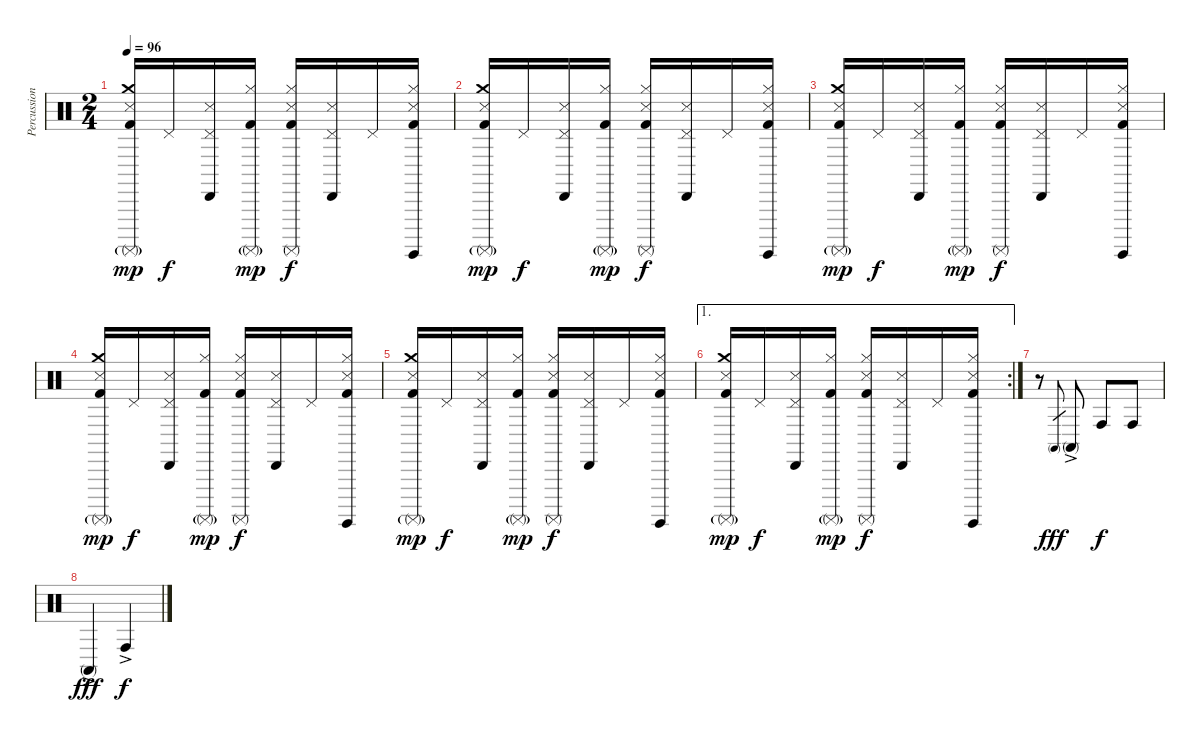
\track ("Percussion" "Percussion") {instrument percussion}
\staff {score}
\articulation defaults
\ts (2 4)
\tempo 96
\clef neutral
\ks c
("Crash medium (hit)" "Snare (side stick) 3" "Surdo (mute)"{g} "Kick (hit) 2").16{dy mp volume 12} "Pedal Hi-Hat (hit)".16{dy f} ("Pedal Hi-Hat (hit)" "Cabasa (hit)" "Snare (side stick) 3").16 ("Hi-Hat (closed)" "Surdo (mute)"{g} "Kick (hit) 2").16{dy mp} ("Hi-Hat (closed)" "Snare (side stick) 3" "Surdo (mute)" "Kick (hit) 2").16{dy f} ("Pedal Hi-Hat (hit)" "Cabasa (hit)" "Snare (side stick) 3").16 "Pedal Hi-Hat (hit)".16 ("Hi-Hat (closed)" "Snare (side stick) 3" "Surdo (hit)" "Kick (hit) 2").16 |
("Crash medium (hit)" "Snare (side stick) 3" "Surdo (mute)"{g} "Kick (hit) 2").16{dy mp volume 12} "Pedal Hi-Hat (hit)".16{dy f} ("Pedal Hi-Hat (hit)" "Cabasa (hit)" "Snare (side stick) 3").16 ("Hi-Hat (closed)" "Surdo (mute)"{g} "Kick (hit) 2").16{dy mp} ("Hi-Hat (closed)" "Snare (side stick) 3" "Surdo (mute)" "Kick (hit) 2").16{dy f} ("Pedal Hi-Hat (hit)" "Cabasa (hit)" "Snare (side stick) 3").16 "Pedal Hi-Hat (hit)".16 ("Hi-Hat (closed)" "Snare (side stick) 3" "Surdo (hit)" "Kick (hit) 2").16 |
("Crash medium (hit)" "Snare (side stick) 3" "Surdo (mute)"{g} "Kick (hit) 2").16{dy mp volume 12} "Pedal Hi-Hat (hit)".16{dy f} ("Pedal Hi-Hat (hit)" "Cabasa (hit)" "Snare (side stick) 3").16 ("Hi-Hat (closed)" "Surdo (mute)"{g} "Kick (hit) 2").16{dy mp} ("Hi-Hat (closed)" "Snare (side stick) 3" "Surdo (mute)" "Kick (hit) 2").16{dy f} ("Pedal Hi-Hat (hit)" "Cabasa (hit)" "Snare (side stick) 3").16 "Pedal Hi-Hat (hit)".16 ("Hi-Hat (closed)" "Snare (side stick) 3" "Surdo (hit)" "Kick (hit) 2").16 |
("Crash medium (hit)" "Snare (side stick) 3" "Surdo (mute)"{g} "Kick (hit) 2").16{dy mp volume 12} "Pedal Hi-Hat (hit)".16{dy f} ("Pedal Hi-Hat (hit)" "Cabasa (hit)" "Snare (side stick) 3").16 ("Hi-Hat (closed)" "Surdo (mute)"{g} "Kick (hit) 2").16{dy mp} ("Hi-Hat (closed)" "Snare (side stick) 3" "Surdo (mute)" "Kick (hit) 2").16{dy f} ("Pedal Hi-Hat (hit)" "Cabasa (hit)" "Snare (side stick) 3").16 "Pedal Hi-Hat (hit)".16 ("Hi-Hat (closed)" "Snare (side stick) 3" "Surdo (hit)" "Kick (hit) 2").16 |
("Crash medium (hit)" "Snare (side stick) 3" "Surdo (mute)"{g} "Kick (hit) 2").16{dy mp volume 12} "Pedal Hi-Hat (hit)".16{dy f} ("Pedal Hi-Hat (hit)" "Cabasa (hit)" "Snare (side stick) 3").16 ("Hi-Hat (closed)" "Surdo (mute)"{g} "Kick (hit) 2").16{dy mp} ("Hi-Hat (closed)" "Snare (side stick) 3" "Surdo (mute)" "Kick (hit) 2").16{dy f} ("Pedal Hi-Hat (hit)" "Cabasa (hit)" "Snare (side stick) 3").16 "Pedal Hi-Hat (hit)".16 ("Hi-Hat (closed)" "Snare (side stick) 3" "Surdo (hit)" "Kick (hit) 2").16 |
\ae 1
\rc 2
("Crash medium (hit)" "Snare (side stick) 3" "Surdo (mute)"{g} "Kick (hit) 2").16{dy mp volume 12} "Pedal Hi-Hat (hit)".16{dy f} ("Pedal Hi-Hat (hit)" "Cabasa (hit)" "Snare (side stick) 3").16 ("Hi-Hat (closed)" "Surdo (mute)"{g} "Kick (hit) 2").16{dy mp} ("Hi-Hat (closed)" "Snare (side stick) 3" "Surdo (mute)" "Kick (hit) 2").16{dy f} ("Pedal Hi-Hat (hit)" "Cabasa (hit)" "Snare (side stick) 3").16 "Pedal Hi-Hat (hit)".16 ("Hi-Hat (closed)" "Snare (side stick) 3" "Surdo (hit)" "Kick (hit) 2").16 |
r.8{volume 16} "Conga high (mute)".8{gr dy fff} "Conga high (mute)"{ac}.8 "Conga high (hit)".8{dy f} "Conga high (hit)".8 |
"Conga high (mute)"{ac}.4{dy fff} "Conga high (hit)"{ac}.4{dy f}
